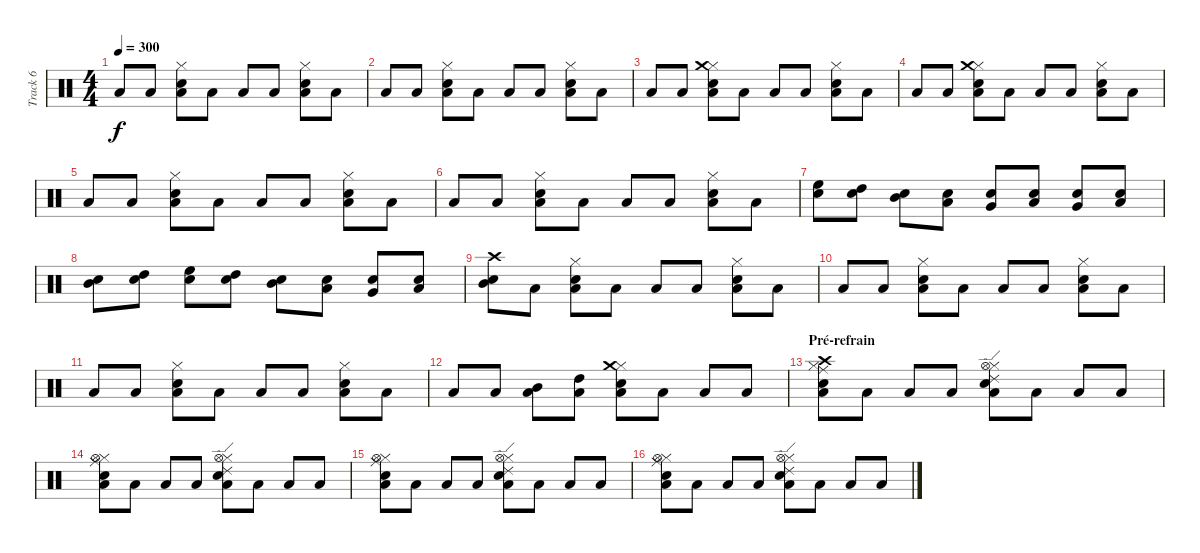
\track ("Track 6" "Track 6") {instrument percussion}
\staff {score}
\articulation defaults
\ts (4 4)
\tempo 300
\clef neutral
\ks c "Low Floor Tom (hit)".8{dy f} "Low Floor Tom (hit)".8
("Electric Snare (hit)" "Low Tom (hit)" "Hi-Hat (closed)").8 "Low Floor Tom (hit)".8 "Low Floor Tom (hit)".8 "Low Floor Tom (hit)".8 ("Electric Snare (hit)" "Low Tom (hit)" "Hi-Hat (closed)").8 "Low Floor Tom (hit)".8 |
"Low Floor Tom (hit)".8 "Low Floor Tom (hit)".8 ("Electric Snare (hit)" "Low Tom (hit)" "Hi-Hat (closed)").8 "Low Floor Tom (hit)".8 "Low Floor Tom (hit)".8 "Low Floor Tom (hit)".8 ("Electric Snare (hit)" "Low Tom (hit)" "Hi-Hat (closed)").8 "Low Floor Tom (hit)".8 |
"Low Floor Tom (hit)".8 "Low Floor Tom (hit)".8 ("Electric Snare (hit)" "Low Tom (hit)" "Hi-Hat (closed)" "Crash medium (hit)").8 "Low Floor Tom (hit)".8 "Low Floor Tom (hit)".8 "Low Floor Tom (hit)".8 ("Electric Snare (hit)" "Low Tom (hit)" "Hi-Hat (closed)").8 "Low Floor Tom (hit)".8 |
"Low Floor Tom (hit)".8 "Low Floor Tom (hit)".8 ("Electric Snare (hit)" "Low Tom (hit)" "Hi-Hat (closed)" "Crash medium (hit)").8 "Low Floor Tom (hit)".8 "Low Floor Tom (hit)".8 "Low Floor Tom (hit)".8 ("Electric Snare (hit)" "Low Tom (hit)" "Hi-Hat (closed)").8 "Low Floor Tom (hit)".8 |
"Low Floor Tom (hit)".8 "Low Floor Tom (hit)".8 ("Electric Snare (hit)" "Low Tom (hit)" "Hi-Hat (closed)").8 "Low Floor Tom (hit)".8 "Low Floor Tom (hit)".8 "Low Floor Tom (hit)".8 ("Electric Snare (hit)" "Low Tom (hit)" "Hi-Hat (closed)").8 "Low Floor Tom (hit)".8 |
"Low Floor Tom (hit)".8 "Low Floor Tom (hit)".8 ("Electric Snare (hit)" "Low Tom (hit)" "Hi-Hat (closed)").8 "Low Floor Tom (hit)".8 "Low Floor Tom (hit)".8 "Low Floor Tom (hit)".8 ("Electric Snare (hit)" "Low Tom (hit)" "Hi-Hat (closed)").8 "Low Floor Tom (hit)".8 |
("High Floor Tom (hit)" "Electric Snare (hit)").8 ("High Tom (hit)" "Electric Snare (hit)").8 ("Mid Tom (hit)" "Electric Snare (hit)").8 ("Low Tom (hit)" "Electric Snare (hit)").8 ("Very Low Tom (hit)" "Electric Snare (hit)").8 ("Low Floor Tom (hit)" "Electric Snare (hit)").8 ("Very Low Tom (hit)" "Electric Snare (hit)").8 ("Low Tom (hit)" "Electric Snare (hit)").8 |
("Mid Tom (hit)" "Electric Snare (hit)").8 ("High Tom (hit)" "Electric Snare (hit)").8 ("High Floor Tom (hit)" "Electric Snare (hit)").8 ("High Tom (hit)" "Electric Snare (hit)").8 ("Mid Tom (hit)" "Snare (hit) 2").8 ("Low Tom (hit)" "Snare (hit) 2").8 ("Very Low Tom (hit)" "Snare (hit) 2").8 ("Low Floor Tom (hit)" "Snare (hit) 2").8 |
("Snare (hit) 2" "Mid Tom (hit)" "Crash high (hit)").8 "Low Floor Tom (hit)".8 ("Electric Snare (hit)" "Low Tom (hit)" "Hi-Hat (closed)").8 "Low Floor Tom (hit)".8 "Low Floor Tom (hit)".8 "Low Floor Tom (hit)".8 ("Electric Snare (hit)" "Low Tom (hit)" "Hi-Hat (closed)").8 "Low Floor Tom (hit)".8 |
"Low Floor Tom (hit)".8 "Low Floor Tom (hit)".8 ("Electric Snare (hit)" "Low Tom (hit)" "Hi-Hat (closed)").8 "Low Floor Tom (hit)".8 "Low Floor Tom (hit)".8 "Low Floor Tom (hit)".8 ("Electric Snare (hit)" "Low Tom (hit)" "Hi-Hat (closed)").8 "Low Floor Tom (hit)".8 |
"Low Floor Tom (hit)".8 "Low Floor Tom (hit)".8 ("Electric Snare (hit)" "Low Tom (hit)" "Hi-Hat (closed)").8 "Low Floor Tom (hit)".8 "Low Floor Tom (hit)".8 "Low Floor Tom (hit)".8 ("Electric Snare (hit)" "Low Tom (hit)" "Hi-Hat (closed)").8 "Low Floor Tom (hit)".8 |
"Low Floor Tom (hit)".8 "Low Floor Tom (hit)".8 ("Low Floor Tom (hit)" "Mid Tom (hit)").8 ("Low Floor Tom (hit)" "High Tom (hit)").8 ("Electric Snare (hit)" "Low Tom (hit)" "Hi-Hat (closed)" "Crash medium (hit)").8 "Low Floor Tom (hit)".8 "Low Floor Tom (hit)".8 "Low Floor Tom (hit)".8 |
\section ("" "Pré-refrain")
("Snare (hit) 2" "Low Tom (hit)" "Hi-Hat (closed)" "Crash high (hit)" "Ride (middle)").8 "Low Floor Tom (hit)".8 "Low Floor Tom (hit)".8 "Low Floor Tom (hit)".8 ("Electric Snare (hit)" "Low Tom (hit)" "Hi-Hat (closed)" "Hi-Hat (open)" "Ride (edge) 2").8 "Low Floor Tom (hit)".8 "Low Floor Tom (hit)".8 "Low Floor Tom (hit)".8 |
("Snare (hit) 2" "Low Tom (hit)" "Hi-Hat (closed)" "Hi-Hat (open)" "Ride (middle)").8 "Low Floor Tom (hit)".8 "Low Floor Tom (hit)".8 "Low Floor Tom (hit)".8 ("Electric Snare (hit)" "Low Tom (hit)" "Hi-Hat (closed)" "Hi-Hat (open)" "Ride (edge) 2").8 "Low Floor Tom (hit)".8 "Low Floor Tom (hit)".8 "Low Floor Tom (hit)".8 |
("Snare (hit) 2" "Low Tom (hit)" "Hi-Hat (closed)" "Hi-Hat (open)" "Ride (middle)").8 "Low Floor Tom (hit)".8 "Low Floor Tom (hit)".8 "Low Floor Tom (hit)".8 ("Electric Snare (hit)" "Low Tom (hit)" "Hi-Hat (closed)" "Hi-Hat (open)" "Ride (edge) 2").8 "Low Floor Tom (hit)".8 "Low Floor Tom (hit)".8 "Low Floor Tom (hit)".8 |
("Snare (hit) 2" "Low Tom (hit)" "Hi-Hat (closed)" "Hi-Hat (open)" "Ride (middle)").8 "Low Floor Tom (hit)".8 "Low Floor Tom (hit)".8 "Low Floor Tom (hit)".8 ("Electric Snare (hit)" "Low Tom (hit)" "Hi-Hat (closed)" "Hi-Hat (open)" "Ride (edge) 2").8 "Low Floor Tom (hit)".8 "Low Floor Tom (hit)".8 "Low Floor Tom (hit)".8
